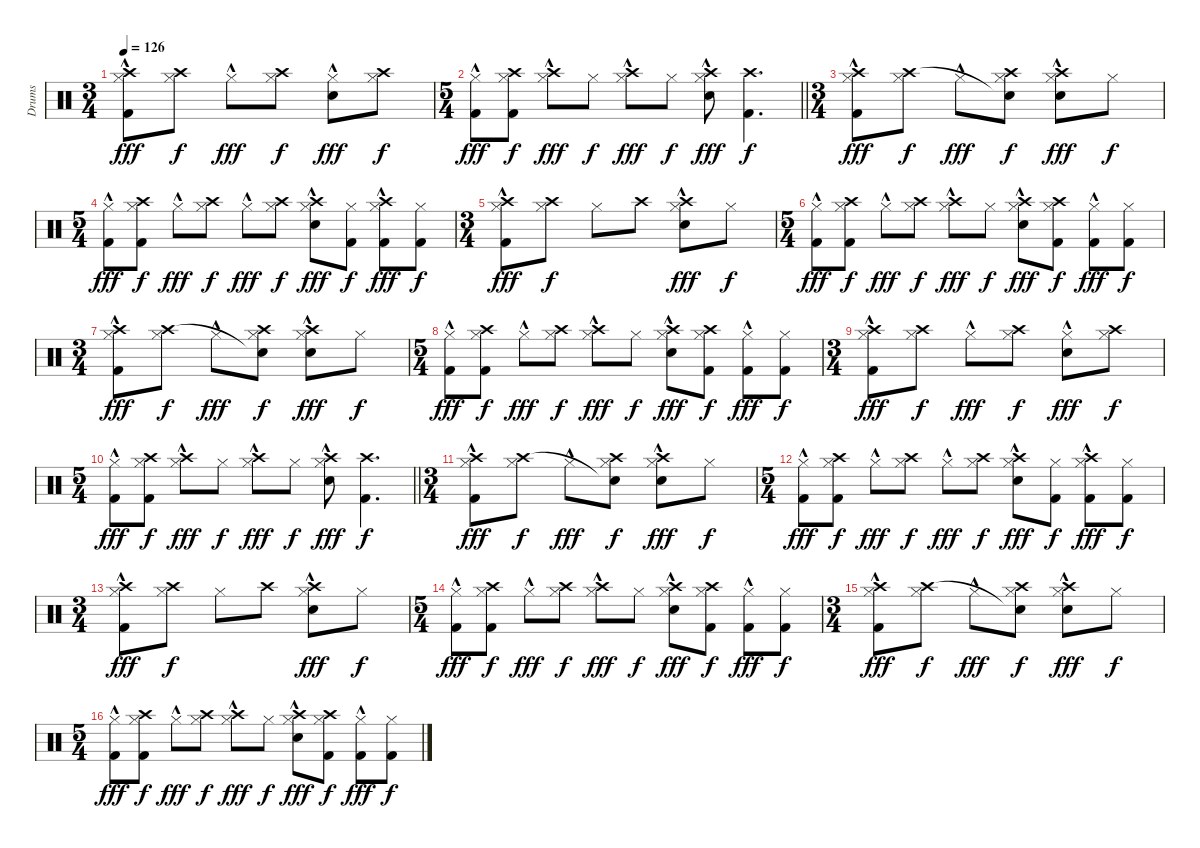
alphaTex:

\track ("Drums" "Drums") {instrument percussion}
\staff {score}
\articulation defaults
\ts (3 4)
\tempo 126
\clef neutral
\ks c
("Hi-Hat (closed)"{hac} "Crash high (hit)" "Kick (hit) 2").8{dy fff} ("Hi-Hat (closed)" "Crash high (hit)").8{dy f} "Hi-Hat (closed)"{hac}.8{dy fff} ("Hi-Hat (closed)" "Crash high (hit)").8{dy f} ("Hi-Hat (closed)"{hac} "Snare (hit) 2"{hac}).8{dy fff} ("Hi-Hat (closed)" "Crash high (hit)").8{dy f} |
\ts (5 4)
\barLineRight lightlight
("Hi-Hat (closed)"{hac} "Kick (hit) 2").8{dy fff} ("Hi-Hat (closed)" "Crash high (hit)" "Kick (hit) 2").8{dy f} ("Hi-Hat (closed)"{hac} "Crash high (hit)").8{dy fff} "Hi-Hat (closed)".8{dy f} ("Hi-Hat (closed)"{hac} "Crash high (hit)").8{dy fff} "Hi-Hat (closed)".8{dy f} ("Hi-Hat (closed)"{hac} "Crash high (hit)" "Snare (hit) 2"{hac}).8{dy fff} ("Crash high (hit)" "Kick (hit) 2").4{d dy f} |
\ts (3 4)
("Hi-Hat (closed)"{hac} "Crash high (hit)" "Kick (hit) 2").8{dy fff} ("Hi-Hat (closed)" "Crash high (hit)").8{dy f} "Hi-Hat (closed)"{hac}.8{dy fff} ("Hi-Hat (closed)" "Snare (hit)"{t} "Crash high (hit)").8{dy f} ("Hi-Hat (closed)"{hac} "Crash high (hit)" "Snare (hit) 2"{hac}).8{dy fff} "Hi-Hat (closed)".8{dy f} |
\ts (5 4)
("Hi-Hat (closed)"{hac} "Kick (hit) 2").8{dy fff} ("Hi-Hat (closed)" "Crash high (hit)" "Kick (hit) 2").8{dy f} "Hi-Hat (closed)"{hac}.8{dy fff} ("Hi-Hat (closed)" "Crash high (hit)").8{dy f} "Hi-Hat (closed)"{hac}.8{dy fff} ("Hi-Hat (closed)" "Crash high (hit)").8{dy f} ("Hi-Hat (closed)"{hac} "Crash high (hit)" "Snare (hit) 2"{hac}).8{dy fff} ("Hi-Hat (closed)" "Kick (hit) 2").8{dy f} ("Hi-Hat (closed)"{hac} "Crash high (hit)" "Kick (hit) 2").8{dy fff} ("Hi-Hat (closed)" "Kick (hit) 2").8{dy f} |
\ts (3 4)
("Hi-Hat (closed)"{hac} "Crash high (hit)" "Kick (hit) 2").8{dy fff} ("Hi-Hat (closed)" "Crash high (hit)").8{dy f} "Hi-Hat (closed)".8 "Crash high (hit)".8 ("Hi-Hat (closed)"{hac} "Crash high (hit)" "Snare (hit) 2"{hac}).8{dy fff} "Hi-Hat (closed)".8{dy f} |
\ts (5 4)
("Hi-Hat (closed)"{hac} "Kick (hit) 2").8{dy fff} ("Hi-Hat (closed)" "Crash high (hit)" "Kick (hit) 2").8{dy f} "Hi-Hat (closed)"{hac}.8{dy fff} ("Hi-Hat (closed)" "Crash high (hit)").8{dy f} ("Hi-Hat (closed)"{hac} "Crash high (hit)").8{dy fff} "Hi-Hat (closed)".8{dy f} ("Hi-Hat (closed)"{hac} "Crash high (hit)" "Snare (hit) 2"{hac}).8{dy fff} ("Hi-Hat (closed)" "Crash high (hit)" "Kick (hit) 2").8{dy f} ("Hi-Hat (closed)"{hac} "Kick (hit) 2").8{dy fff} ("Hi-Hat (closed)" "Kick (hit) 2").8{dy f} |
\ts (3 4)
("Hi-Hat (closed)"{hac} "Crash high (hit)" "Kick (hit) 2").8{dy fff} ("Hi-Hat (closed)" "Crash high (hit)").8{dy f} "Hi-Hat (closed)"{hac}.8{dy fff} ("Hi-Hat (closed)" "Snare (hit)"{t} "Crash high (hit)").8{dy f} ("Hi-Hat (closed)"{hac} "Crash high (hit)" "Snare (hit) 2"{hac}).8{dy fff} "Hi-Hat (closed)".8{dy f} |
\ts (5 4)
("Hi-Hat (closed)"{hac} "Kick (hit) 2").8{dy fff} ("Hi-Hat (closed)" "Crash high (hit)" "Kick (hit) 2").8{dy f} "Hi-Hat (closed)"{hac}.8{dy fff} ("Hi-Hat (closed)" "Crash high (hit)").8{dy f} ("Hi-Hat (closed)"{hac} "Crash high (hit)").8{dy fff} "Hi-Hat (closed)".8{dy f} ("Hi-Hat (closed)"{hac} "Crash high (hit)" "Snare (hit) 2"{hac}).8{dy fff} ("Hi-Hat (closed)" "Crash high (hit)" "Kick (hit) 2").8{dy f} ("Hi-Hat (closed)"{hac} "Kick (hit) 2").8{dy fff} ("Hi-Hat (closed)" "Kick (hit) 2").8{dy f} |
\ts (3 4)
("Hi-Hat (closed)"{hac} "Crash high (hit)" "Kick (hit) 2").8{dy fff} ("Hi-Hat (closed)" "Crash high (hit)").8{dy f} "Hi-Hat (closed)"{hac}.8{dy fff} ("Hi-Hat (closed)" "Crash high (hit)").8{dy f} ("Hi-Hat (closed)"{hac} "Snare (hit) 2"{hac}).8{dy fff} ("Hi-Hat (closed)" "Crash high (hit)").8{dy f} |
\ts (5 4)
\barLineRight lightlight
("Hi-Hat (closed)"{hac} "Kick (hit) 2").8{dy fff} ("Hi-Hat (closed)" "Crash high (hit)" "Kick (hit) 2").8{dy f} ("Hi-Hat (closed)"{hac} "Crash high (hit)").8{dy fff} "Hi-Hat (closed)".8{dy f} ("Hi-Hat (closed)"{hac} "Crash high (hit)").8{dy fff} "Hi-Hat (closed)".8{dy f} ("Hi-Hat (closed)"{hac} "Crash high (hit)" "Snare (hit) 2"{hac}).8{dy fff} ("Crash high (hit)" "Kick (hit) 2").4{d dy f} |
\ts (3 4)
("Hi-Hat (closed)"{hac} "Crash high (hit)" "Kick (hit) 2").8{dy fff} ("Hi-Hat (closed)" "Crash high (hit)").8{dy f} "Hi-Hat (closed)"{hac}.8{dy fff} ("Hi-Hat (closed)" "Snare (hit)"{t} "Crash high (hit)").8{dy f} ("Hi-Hat (closed)"{hac} "Crash high (hit)" "Snare (hit) 2"{hac}).8{dy fff} "Hi-Hat (closed)".8{dy f} |
\ts (5 4)
("Hi-Hat (closed)"{hac} "Kick (hit) 2").8{dy fff} ("Hi-Hat (closed)" "Crash high (hit)" "Kick (hit) 2").8{dy f} "Hi-Hat (closed)"{hac}.8{dy fff} ("Hi-Hat (closed)" "Crash high (hit)").8{dy f} "Hi-Hat (closed)"{hac}.8{dy fff} ("Hi-Hat (closed)" "Crash high (hit)").8{dy f} ("Hi-Hat (closed)"{hac} "Crash high (hit)" "Snare (hit) 2"{hac}).8{dy fff} ("Hi-Hat (closed)" "Kick (hit) 2").8{dy f} ("Hi-Hat (closed)"{hac} "Crash high (hit)" "Kick (hit) 2").8{dy fff} ("Hi-Hat (closed)" "Kick (hit) 2").8{dy f} |
\ts (3 4)
("Hi-Hat (closed)"{hac} "Crash high (hit)" "Kick (hit) 2").8{dy fff} ("Hi-Hat (closed)" "Crash high (hit)").8{dy f} "Hi-Hat (closed)".8 "Crash high (hit)".8 ("Hi-Hat (closed)"{hac} "Crash high (hit)" "Snare (hit) 2"{hac}).8{dy fff} "Hi-Hat (closed)".8{dy f} |
\ts (5 4)
("Hi-Hat (closed)"{hac} "Kick (hit) 2").8{dy fff} ("Hi-Hat (closed)" "Crash high (hit)" "Kick (hit) 2").8{dy f} "Hi-Hat (closed)"{hac}.8{dy fff} ("Hi-Hat (closed)" "Crash high (hit)").8{dy f} ("Hi-Hat (closed)"{hac} "Crash high (hit)").8{dy fff} "Hi-Hat (closed)".8{dy f} ("Hi-Hat (closed)"{hac} "Crash high (hit)" "Snare (hit) 2"{hac}).8{dy fff} ("Hi-Hat (closed)" "Crash high (hit)" "Kick (hit) 2").8{dy f} ("Hi-Hat (closed)"{hac} "Kick (hit) 2").8{dy fff} ("Hi-Hat (closed)" "Kick (hit) 2").8{dy f} |
\ts (3 4)
("Hi-Hat (closed)"{hac} "Crash high (hit)" "Kick (hit) 2").8{dy fff} ("Hi-Hat (closed)" "Crash high (hit)").8{dy f} "Hi-Hat (closed)"{hac}.8{dy fff} ("Hi-Hat (closed)" "Snare (hit)"{t} "Crash high (hit)").8{dy f} ("Hi-Hat (closed)"{hac} "Crash high (hit)" "Snare (hit) 2"{hac}).8{dy fff} "Hi-Hat (closed)".8{dy f} |
\ts (5 4)
("Hi-Hat (closed)"{hac} "Kick (hit) 2").8{dy fff} ("Hi-Hat (closed)" "Crash high (hit)" "Kick (hit) 2").8{dy f} "Hi-Hat (closed)"{hac}.8{dy fff} ("Hi-Hat (closed)" "Crash high (hit)").8{dy f} ("Hi-Hat (closed)"{hac} "Crash high (hit)").8{dy fff} "Hi-Hat (closed)".8{dy f} ("Hi-Hat (closed)"{hac} "Crash high (hit)" "Snare (hit) 2"{hac}).8{dy fff} ("Hi-Hat (closed)" "Crash high (hit)" "Kick (hit) 2").8{dy f} ("Hi-Hat (closed)"{hac} "Kick (hit) 2").8{dy fff} ("Hi-Hat (closed)" "Kick (hit) 2").8{dy f}
